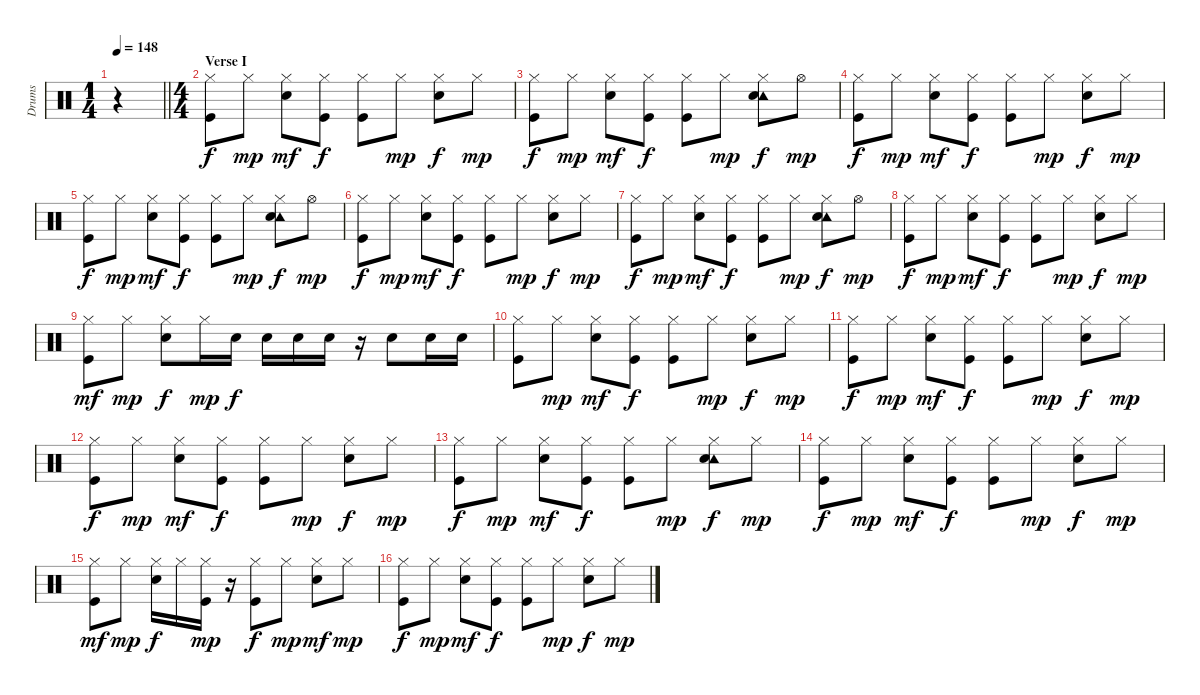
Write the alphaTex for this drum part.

\track ("Drums   " "Drums   ") {instrument percussion}
\staff {score}
\articulation defaults
\ts (1 4)
\tempo 148
\clef neutral
\barLineRight lightlight
\ks c
r.4{dy f} |
\ts (4 4)
\section ("" "Verse I")
("Hi-Hat (closed)" "Kick (hit)").8 "Hi-Hat (closed)".8{dy mp} ("Hi-Hat (closed)" "Snare (hit) 2").8{dy mf} ("Hi-Hat (closed)" "Kick (hit)").8{dy f} ("Hi-Hat (closed)" "Kick (hit)").8 "Hi-Hat (closed)".8{dy mp} ("Hi-Hat (closed)" "Snare (hit) 2").8{dy f} "Hi-Hat (closed)".8{dy mp} |
("Hi-Hat (closed)" "Kick (hit)").8{dy f} "Hi-Hat (closed)".8{dy mp} ("Hi-Hat (closed)" "Snare (hit) 2").8{dy mf} ("Hi-Hat (closed)" "Kick (hit)").8{dy f} ("Hi-Hat (closed)" "Kick (hit)").8 "Hi-Hat (closed)".8{dy mp} ("Hi-Hat (closed)" "Tambourine (hit)" "Snare (hit) 2").8{dy f} "Hi-Hat (open)".8{dy mp} |
("Hi-Hat (closed)" "Kick (hit)").8{dy f} "Hi-Hat (closed)".8{dy mp} ("Hi-Hat (closed)" "Snare (hit) 2").8{dy mf} ("Hi-Hat (closed)" "Kick (hit)").8{dy f} ("Hi-Hat (closed)" "Kick (hit)").8 "Hi-Hat (closed)".8{dy mp} ("Hi-Hat (closed)" "Snare (hit) 2").8{dy f} "Hi-Hat (closed)".8{dy mp} |
("Hi-Hat (closed)" "Kick (hit)").8{dy f} "Hi-Hat (closed)".8{dy mp} ("Hi-Hat (closed)" "Snare (hit) 2").8{dy mf} ("Hi-Hat (closed)" "Kick (hit)").8{dy f} ("Hi-Hat (closed)" "Kick (hit)").8 "Hi-Hat (closed)".8{dy mp} ("Hi-Hat (closed)" "Tambourine (hit)" "Snare (hit) 2").8{dy f} "Hi-Hat (open)".8{dy mp} |
("Hi-Hat (closed)" "Kick (hit)").8{dy f} "Hi-Hat (closed)".8{dy mp} ("Hi-Hat (closed)" "Snare (hit) 2").8{dy mf} ("Hi-Hat (closed)" "Kick (hit)").8{dy f} ("Hi-Hat (closed)" "Kick (hit)").8 "Hi-Hat (closed)".8{dy mp} ("Hi-Hat (closed)" "Snare (hit) 2").8{dy f} "Hi-Hat (closed)".8{dy mp} |
("Hi-Hat (closed)" "Kick (hit)").8{dy f} "Hi-Hat (closed)".8{dy mp} ("Hi-Hat (closed)" "Snare (hit) 2").8{dy mf} ("Hi-Hat (closed)" "Kick (hit)").8{dy f} ("Hi-Hat (closed)" "Kick (hit)").8 "Hi-Hat (closed)".8{dy mp} ("Hi-Hat (closed)" "Tambourine (hit)" "Snare (hit) 2").8{dy f} "Hi-Hat (open)".8{dy mp} |
("Hi-Hat (closed)" "Kick (hit)").8{dy f} "Hi-Hat (closed)".8{dy mp} ("Hi-Hat (closed)" "Snare (hit) 2").8{dy mf} ("Hi-Hat (closed)" "Kick (hit)").8{dy f} ("Hi-Hat (closed)" "Kick (hit)").8 "Hi-Hat (closed)".8{dy mp} ("Hi-Hat (closed)" "Snare (hit) 2").8{dy f} "Hi-Hat (closed)".8{dy mp} |
("Hi-Hat (closed)" "Kick (hit)").8{dy mf} "Hi-Hat (closed)".8{dy mp} ("Hi-Hat (closed)" "Snare (hit) 2").8{dy f} "Hi-Hat (closed)".16{dy mp} "Snare (hit) 2".16{dy f} "Snare (hit) 2".16 "Snare (hit) 2".16 "Snare (hit) 2".16 r.16 "Snare (hit) 2".8 "Snare (hit) 2".16 "Snare (hit) 2".16 |
("Hi-Hat (closed)" "Kick (hit)").8 "Hi-Hat (closed)".8{dy mp} ("Hi-Hat (closed)" "Snare (hit) 2").8{dy mf} ("Hi-Hat (closed)" "Kick (hit)").8{dy f} ("Hi-Hat (closed)" "Kick (hit)").8 "Hi-Hat (closed)".8{dy mp} ("Hi-Hat (closed)" "Snare (hit) 2").8{dy f} "Hi-Hat (closed)".8{dy mp} |
("Hi-Hat (closed)" "Kick (hit)").8{dy f} "Hi-Hat (closed)".8{dy mp} ("Hi-Hat (closed)" "Snare (hit) 2").8{dy mf} ("Hi-Hat (closed)" "Kick (hit)").8{dy f} ("Hi-Hat (closed)" "Kick (hit)").8 "Hi-Hat (closed)".8{dy mp} ("Hi-Hat (closed)" "Snare (hit) 2").8{dy f} "Hi-Hat (closed)".8{dy mp} |
("Hi-Hat (closed)" "Kick (hit)").8{dy f} "Hi-Hat (closed)".8{dy mp} ("Hi-Hat (closed)" "Snare (hit) 2").8{dy mf} ("Hi-Hat (closed)" "Kick (hit)").8{dy f} ("Hi-Hat (closed)" "Kick (hit)").8 "Hi-Hat (closed)".8{dy mp} ("Hi-Hat (closed)" "Snare (hit) 2").8{dy f} "Hi-Hat (closed)".8{dy mp} |
("Hi-Hat (closed)" "Kick (hit)").8{dy f} "Hi-Hat (closed)".8{dy mp} ("Hi-Hat (closed)" "Snare (hit) 2").8{dy mf} ("Hi-Hat (closed)" "Kick (hit)").8{dy f} ("Hi-Hat (closed)" "Kick (hit)").8 "Hi-Hat (closed)".8{dy mp} ("Hi-Hat (closed)" "Tambourine (hit)" "Snare (hit) 2").8{dy f} "Hi-Hat (closed)".8{dy mp} |
("Hi-Hat (closed)" "Kick (hit)").8{dy f} "Hi-Hat (closed)".8{dy mp} ("Hi-Hat (closed)" "Snare (hit) 2").8{dy mf} ("Hi-Hat (closed)" "Kick (hit)").8{dy f} ("Hi-Hat (closed)" "Kick (hit)").8 "Hi-Hat (closed)".8{dy mp} ("Hi-Hat (closed)" "Snare (hit) 2").8{dy f} "Hi-Hat (closed)".8{dy mp} |
("Hi-Hat (closed)" "Kick (hit)").8{dy mf} "Hi-Hat (closed)".8{dy mp} ("Hi-Hat (closed)" "Snare (hit) 2").16{dy f} "Hi-Hat (closed)".16 ("Hi-Hat (closed)" "Kick (hit)").16{dy mp} r.16 ("Hi-Hat (closed)" "Kick (hit)").8{dy f} "Hi-Hat (closed)".8{dy mp} ("Hi-Hat (closed)" "Snare (hit) 2").8{dy mf} "Hi-Hat (closed)".8{dy mp} |
("Hi-Hat (closed)" "Kick (hit)").8{dy f} "Hi-Hat (closed)".8{dy mp} ("Hi-Hat (closed)" "Snare (hit) 2").8{dy mf} ("Hi-Hat (closed)" "Kick (hit)").8{dy f} ("Hi-Hat (closed)" "Kick (hit)").8 "Hi-Hat (closed)".8{dy mp} ("Hi-Hat (closed)" "Snare (hit) 2").8{dy f} "Hi-Hat (closed)".8{dy mp}
